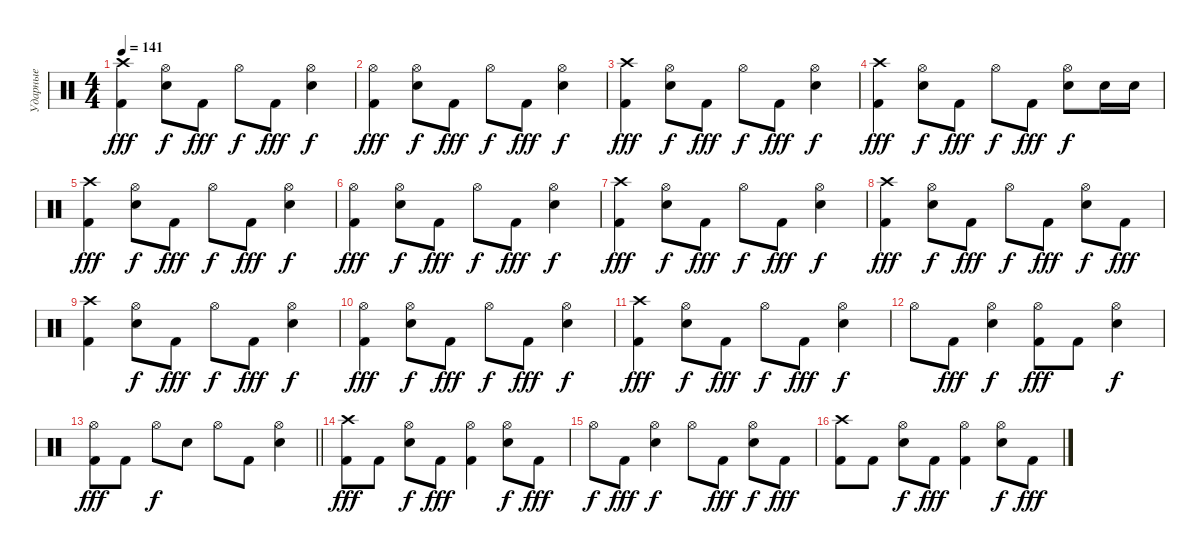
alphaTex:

\track ("Ударные" "Ударные") {instrument percussion}
\staff {score}
\articulation defaults
\ts (4 4)
\tempo 141
\clef neutral
\ks c
("Kick (hit) 2" "Crash high (hit)").4{dy fff} ("Snare (hit) 2" "Hi-Hat (open)").8{dy f} "Kick (hit) 2".8{dy fff} "Hi-Hat (open)".8{dy f} "Kick (hit) 2".8{dy fff} ("Snare (hit) 2" "Hi-Hat (open)").4{dy f} |
("Kick (hit) 2" "Hi-Hat (open)").4{dy fff} ("Snare (hit) 2" "Hi-Hat (open)").8{dy f} "Kick (hit) 2".8{dy fff} "Hi-Hat (open)".8{dy f} "Kick (hit) 2".8{dy fff} ("Snare (hit) 2" "Hi-Hat (open)").4{dy f} |
("Kick (hit) 2" "Crash high (hit)").4{dy fff} ("Snare (hit) 2" "Hi-Hat (open)").8{dy f} "Kick (hit) 2".8{dy fff} "Hi-Hat (open)".8{dy f} "Kick (hit) 2".8{dy fff} ("Snare (hit) 2" "Hi-Hat (open)").4{dy f} |
("Kick (hit) 2" "Crash high (hit)").4{dy fff} ("Snare (hit) 2" "Hi-Hat (open)").8{dy f} "Kick (hit) 2".8{dy fff} "Hi-Hat (open)".8{dy f} "Kick (hit) 2".8{dy fff} ("Snare (hit) 2" "Hi-Hat (open)").8{dy f} "Snare (hit) 2".16 "Snare (hit) 2".16 |
("Kick (hit) 2" "Crash high (hit)").4{dy fff} ("Snare (hit) 2" "Hi-Hat (open)").8{dy f} "Kick (hit) 2".8{dy fff} "Hi-Hat (open)".8{dy f} "Kick (hit) 2".8{dy fff} ("Snare (hit) 2" "Hi-Hat (open)").4{dy f} |
("Kick (hit) 2" "Hi-Hat (open)").4{dy fff} ("Snare (hit) 2" "Hi-Hat (open)").8{dy f} "Kick (hit) 2".8{dy fff} "Hi-Hat (open)".8{dy f} "Kick (hit) 2".8{dy fff} ("Snare (hit) 2" "Hi-Hat (open)").4{dy f} |
("Kick (hit) 2" "Crash high (hit)").4{dy fff} ("Snare (hit) 2" "Hi-Hat (open)").8{dy f} "Kick (hit) 2".8{dy fff} "Hi-Hat (open)".8{dy f} "Kick (hit) 2".8{dy fff} ("Snare (hit) 2" "Hi-Hat (open)").4{dy f} |
("Kick (hit) 2" "Crash high (hit)").4{dy fff} ("Snare (hit) 2" "Hi-Hat (open)").8{dy f} "Kick (hit) 2".8{dy fff} "Hi-Hat (open)".8{dy f} "Kick (hit) 2".8{dy fff} ("Snare (hit) 2" "Hi-Hat (open)").8{dy f} "Kick (hit) 2".8{dy fff} |
("Kick (hit) 2" "Crash high (hit)").4 ("Snare (hit) 2" "Hi-Hat (open)").8{dy f} "Kick (hit) 2".8{dy fff} "Hi-Hat (open)".8{dy f} "Kick (hit) 2".8{dy fff} ("Snare (hit) 2" "Hi-Hat (open)").4{dy f} |
("Kick (hit) 2" "Hi-Hat (open)").4{dy fff} ("Snare (hit) 2" "Hi-Hat (open)").8{dy f} "Kick (hit) 2".8{dy fff} "Hi-Hat (open)".8{dy f} "Kick (hit) 2".8{dy fff} ("Snare (hit) 2" "Hi-Hat (open)").4{dy f} |
("Kick (hit) 2" "Crash high (hit)").4{dy fff} ("Snare (hit) 2" "Hi-Hat (open)").8{dy f} "Kick (hit) 2".8{dy fff} "Hi-Hat (open)".8{dy f} "Kick (hit) 2".8{dy fff} ("Snare (hit) 2" "Hi-Hat (open)").4{dy f} |
"Hi-Hat (open)".8 "Kick (hit) 2".8{dy fff} ("Snare (hit) 2" "Hi-Hat (open)").4{dy f} ("Kick (hit) 2" "Hi-Hat (open)").8{dy fff} "Kick (hit) 2".8 ("Snare (hit) 2" "Hi-Hat (open)").4{dy f} |
\barLineRight lightlight
("Kick (hit) 2" "Hi-Hat (open)").8{dy fff} "Kick (hit) 2".8 "Hi-Hat (open)".8{dy f} "Snare (hit) 2".8 "Hi-Hat (open)".8 "Kick (hit) 2".8 ("Snare (hit) 2" "Hi-Hat (open)").4 |
("Kick (hit) 2" "Crash high (hit)").8{dy fff} "Kick (hit) 2".8 ("Snare (hit) 2" "Hi-Hat (open)").8{dy f} "Kick (hit) 2".8{dy fff} ("Kick (hit) 2" "Hi-Hat (open)").4 ("Snare (hit) 2" "Hi-Hat (open)").8{dy f} "Kick (hit) 2".8{dy fff} |
"Hi-Hat (open)".8{dy f} "Kick (hit) 2".8{dy fff} ("Snare (hit) 2" "Hi-Hat (open)").4{dy f} "Hi-Hat (open)".8 "Kick (hit) 2".8{dy fff} ("Snare (hit) 2" "Hi-Hat (open)").8{dy f} "Kick (hit) 2".8{dy fff} |
("Kick (hit) 2" "Crash high (hit)").8 "Kick (hit) 2".8 ("Snare (hit) 2" "Hi-Hat (open)").8{dy f} "Kick (hit) 2".8{dy fff} ("Kick (hit) 2" "Hi-Hat (open)").4 ("Snare (hit) 2" "Hi-Hat (open)").8{dy f} "Kick (hit) 2".8{dy fff}
